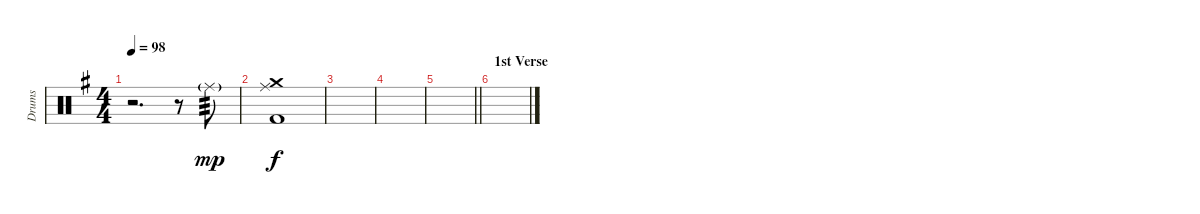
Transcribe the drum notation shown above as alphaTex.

\track ("Drums" "Drums") {instrument percussion}
\staff {score}
\articulation defaults
\ts (4 4)
\tempo 98
\clef neutral
\ks g
r.2{d dy mp} r.8 "Ride (middle)"{g}.8{tp 3} |
("Ride (middle)" "Crash medium (hit)" "Kick (hit) 2").1{dy f} |
|
|
\barLineRight lightlight
|
\section ("" "1st Verse")
